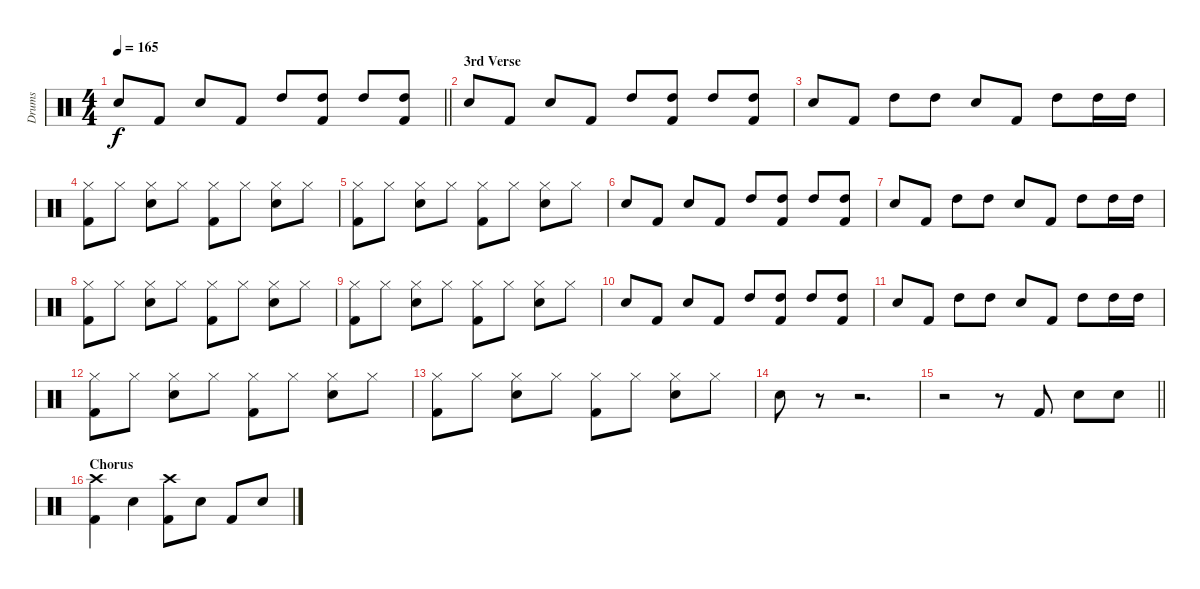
\track ("Drums" "Drums") {instrument percussion}
\staff {score}
\articulation defaults
\ts (4 4)
\tempo 165
\clef neutral
\barLineRight lightlight
\ks c "Snare (hit) 2".8{dy f} "Kick (hit) 2".8 "Snare (hit) 2".8 "Kick (hit) 2".8 "High Tom (hit)".8
("High Tom (hit)" "Kick (hit) 2").8 "High Tom (hit)".8 ("High Tom (hit)" "Kick (hit) 2").8 |
\section ("" "3rd Verse")
"Snare (hit) 2".8 "Kick (hit) 2".8 "Snare (hit) 2".8 "Kick (hit) 2".8 "High Tom (hit)".8 ("High Tom (hit)" "Kick (hit) 2").8 "High Tom (hit)".8 ("High Tom (hit)" "Kick (hit) 2").8 |
"Snare (hit) 2".8 "Kick (hit) 2".8 "High Tom (hit)".8 "High Tom (hit)".8 "Snare (hit) 2".8 "Kick (hit) 2".8 "High Tom (hit)".8 "High Tom (hit)".16 "High Tom (hit)".16 |
("Hi-Hat (closed)" "Kick (hit) 2").8 "Hi-Hat (closed)".8 ("Hi-Hat (closed)" "Snare (hit) 2").8 "Hi-Hat (closed)".8 ("Hi-Hat (closed)" "Kick (hit) 2").8 "Hi-Hat (closed)".8 ("Hi-Hat (closed)" "Snare (hit) 2").8 "Hi-Hat (closed)".8 |
("Hi-Hat (closed)" "Kick (hit) 2").8 "Hi-Hat (closed)".8 ("Hi-Hat (closed)" "Snare (hit) 2").8 "Hi-Hat (closed)".8 ("Hi-Hat (closed)" "Kick (hit) 2").8 "Hi-Hat (closed)".8 ("Hi-Hat (closed)" "Snare (hit) 2").8 "Hi-Hat (closed)".8 |
"Snare (hit) 2".8 "Kick (hit) 2".8 "Snare (hit) 2".8 "Kick (hit) 2".8 "High Tom (hit)".8 ("High Tom (hit)" "Kick (hit) 2").8 "High Tom (hit)".8 ("High Tom (hit)" "Kick (hit) 2").8 |
"Snare (hit) 2".8 "Kick (hit) 2".8 "High Tom (hit)".8 "High Tom (hit)".8 "Snare (hit) 2".8 "Kick (hit) 2".8 "High Tom (hit)".8 "High Tom (hit)".16 "High Tom (hit)".16 |
("Hi-Hat (closed)" "Kick (hit) 2").8 "Hi-Hat (closed)".8 ("Hi-Hat (closed)" "Snare (hit) 2").8 "Hi-Hat (closed)".8 ("Hi-Hat (closed)" "Kick (hit) 2").8 "Hi-Hat (closed)".8 ("Hi-Hat (closed)" "Snare (hit) 2").8 "Hi-Hat (closed)".8 |
("Hi-Hat (closed)" "Kick (hit) 2").8 "Hi-Hat (closed)".8 ("Hi-Hat (closed)" "Snare (hit) 2").8 "Hi-Hat (closed)".8 ("Hi-Hat (closed)" "Kick (hit) 2").8 "Hi-Hat (closed)".8 ("Hi-Hat (closed)" "Snare (hit) 2").8 "Hi-Hat (closed)".8 |
"Snare (hit) 2".8 "Kick (hit) 2".8 "Snare (hit) 2".8 "Kick (hit) 2".8 "High Tom (hit)".8 ("High Tom (hit)" "Kick (hit) 2").8 "High Tom (hit)".8 ("High Tom (hit)" "Kick (hit) 2").8 |
"Snare (hit) 2".8 "Kick (hit) 2".8 "High Tom (hit)".8 "High Tom (hit)".8 "Snare (hit) 2".8 "Kick (hit) 2".8 "High Tom (hit)".8 "High Tom (hit)".16 "High Tom (hit)".16 |
("Hi-Hat (closed)" "Kick (hit) 2").8 "Hi-Hat (closed)".8 ("Hi-Hat (closed)" "Snare (hit) 2").8 "Hi-Hat (closed)".8 ("Hi-Hat (closed)" "Kick (hit) 2").8 "Hi-Hat (closed)".8 ("Hi-Hat (closed)" "Snare (hit) 2").8 "Hi-Hat (closed)".8 |
("Hi-Hat (closed)" "Kick (hit) 2").8 "Hi-Hat (closed)".8 ("Hi-Hat (closed)" "Snare (hit) 2").8 "Hi-Hat (closed)".8 ("Hi-Hat (closed)" "Kick (hit) 2").8 "Hi-Hat (closed)".8 ("Hi-Hat (closed)" "Snare (hit) 2").8 "Hi-Hat (closed)".8 |
"Snare (hit) 2".8 r.8 r.2{d} |
\barLineRight lightlight
r.2 r.8 "Kick (hit) 2".8 "Snare (hit) 2".8 "Snare (hit) 2".8 |
\section ("" "Chorus")
("Crash high (hit)" "Kick (hit) 2").4 "Snare (hit) 2".4 ("Crash high (hit)" "Kick (hit) 2").8 "Snare (hit) 2".8 "Kick (hit) 2".8 "Snare (hit) 2".8
